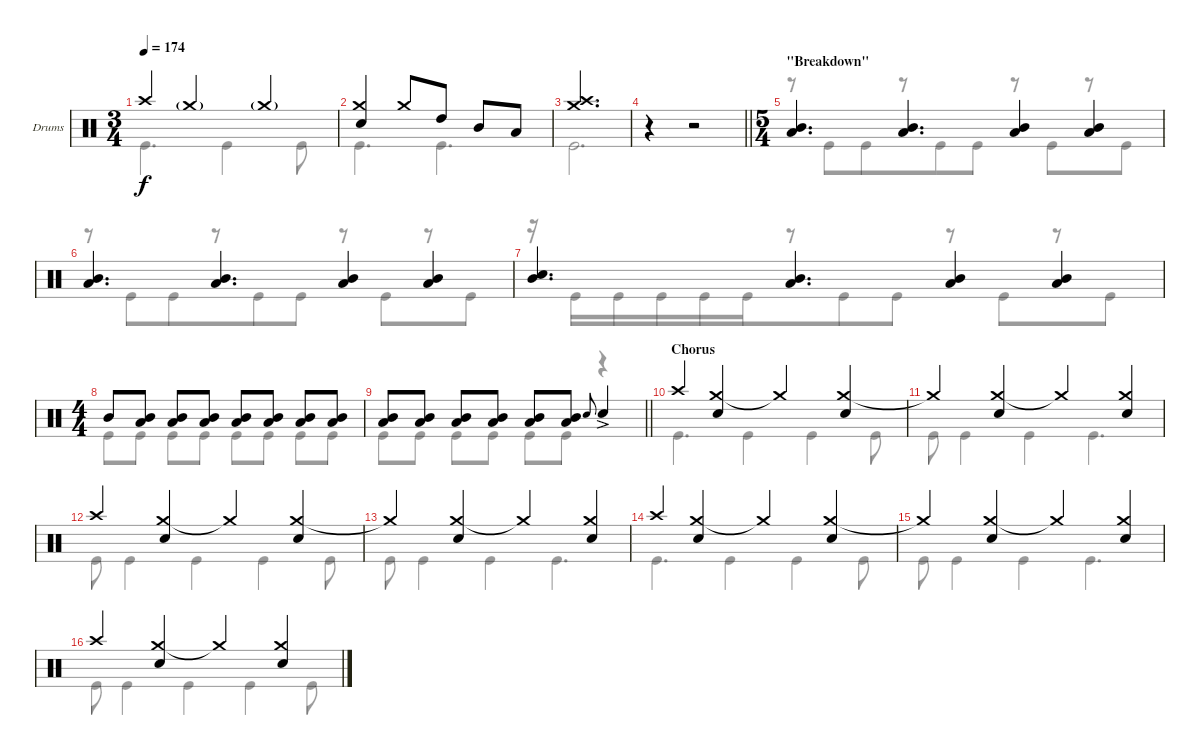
\bracketExtendMode groupsimilarinstruments
\firstSystemTrackNameOrientation horizontal
\otherSystemsTrackNameOrientation horizontal
\track ("Drumkit" "Drums") {instrument percussion}
\staff {score}
\articulation defaults
\voice
\ts (3 4)
\tempo 174
\clef neutral
\ks c "Crash high (hit)".4{dy f} "Crash medium (hit)"{g}.4 "Crash medium (hit)"{g}.4
|
("Crash medium (hit)" "Snare (hit) 2").4 "Crash medium (hit)".8 "High Tom (hit)".8 "Mid Tom (hit)".8 "Low Tom (hit)".8 |
("Crash high (hit)" "Crash medium (hit)").2{d} |
\barLineRight lightlight
r.4 r.2 |
\ts (5 4)
\beaming (8 6 4)
\section ("" "\"Breakdown\"")
("Mid Tom (hit)" "Low Tom (hit)").4{d} ("Mid Tom (hit)" "Low Tom (hit)").4{d} ("Mid Tom (hit)" "Low Tom (hit)").4 ("Mid Tom (hit)" "Low Tom (hit)").4 |
("Mid Tom (hit)" "Low Tom (hit)").4{d} ("Mid Tom (hit)" "Low Tom (hit)").4{d} ("Mid Tom (hit)" "Low Tom (hit)").4 ("Mid Tom (hit)" "Low Tom (hit)").4 |
("Mid Tom (hit)" "Snare (hit) 2").4{d} ("Mid Tom (hit)" "Low Tom (hit)").4{d} ("Mid Tom (hit)" "Low Tom (hit)").4 ("Mid Tom (hit)" "Low Tom (hit)").4 |
\ts (4 4)
\beaming (8 2 2 2 2)
"Mid Tom (hit)".8 ("Mid Tom (hit)" "Low Tom (hit)").8 ("Mid Tom (hit)" "Low Tom (hit)").8 ("Mid Tom (hit)" "Low Tom (hit)").8 ("Mid Tom (hit)" "Low Tom (hit)").8 ("Mid Tom (hit)" "Low Tom (hit)").8 ("Mid Tom (hit)" "Low Tom (hit)").8 ("Mid Tom (hit)" "Low Tom (hit)").8 |
\barLineRight lightlight
("Mid Tom (hit)" "Low Tom (hit)").8 ("Mid Tom (hit)" "Low Tom (hit)").8 ("Mid Tom (hit)" "Low Tom (hit)").8 ("Mid Tom (hit)" "Low Tom (hit)").8 ("Mid Tom (hit)" "Low Tom (hit)").8 ("Mid Tom (hit)" "Low Tom (hit)").8 "Snare (hit) 2".8{gr onbeat} "Snare (hit) 2"{ac}.4 |
\section ("" "Chorus")
"Crash high (hit)".4 ("Crash medium (hit)" "Snare (hit) 2").4 "Crash medium (hit)"{t}.4 ("Crash medium (hit)" "Snare (hit) 2").4 |
"Crash medium (hit)"{t}.4 ("Crash medium (hit)" "Snare (hit) 2").4 "Crash medium (hit)"{t}.4 ("Crash medium (hit)" "Snare (hit) 2").4 |
"Crash high (hit)".4 ("Crash medium (hit)" "Snare (hit) 2").4 "Crash medium (hit)"{t}.4 ("Crash medium (hit)" "Snare (hit) 2").4 |
"Crash medium (hit)"{t}.4 ("Crash medium (hit)" "Snare (hit) 2").4 "Crash medium (hit)"{t}.4 ("Crash medium (hit)" "Snare (hit) 2").4 |
"Crash high (hit)".4 ("Crash medium (hit)" "Snare (hit) 2").4 "Crash medium (hit)"{t}.4 ("Crash medium (hit)" "Snare (hit) 2").4 |
"Crash medium (hit)"{t}.4 ("Crash medium (hit)" "Snare (hit) 2").4 "Crash medium (hit)"{t}.4 ("Crash medium (hit)" "Snare (hit) 2").4 |
"Crash high (hit)".4 ("Crash medium (hit)" "Snare (hit) 2").4 "Crash medium (hit)"{t}.4 ("Crash medium (hit)" "Snare (hit) 2").4
\voice
\clef neutral
\ottava regular
\simile none
\ks c "Kick (hit)".4{d dy f} "Kick (hit)".4 "Kick (hit)".8
|
"Kick (hit)".4{d} "Kick (hit)".4{d} |
"Kick (hit)".2{d} |
\barLineRight lightlight
|
r.8 "Kick (hit)".8 "Kick (hit)".8 r.8 "Kick (hit)".8 "Kick (hit)".8 r.8 "Kick (hit)".8 r.8 "Kick (hit)".8 |
r.8 "Kick (hit)".8 "Kick (hit)".8 r.8 "Kick (hit)".8 "Kick (hit)".8 r.8 "Kick (hit)".8 r.8 "Kick (hit)".8 |
r.16 "Kick (hit)".16 "Kick (hit)".16 "Kick (hit)".16 "Kick (hit)".16 "Kick (hit)".16 r.8 "Kick (hit)".8 "Kick (hit)".8 r.8 "Kick (hit)".8 r.8 "Kick (hit)".8 |
"Kick (hit)".8 "Kick (hit)".8 "Kick (hit)".8 "Kick (hit)".8 "Kick (hit)".8 "Kick (hit)".8 "Kick (hit)".8 "Kick (hit)".8 |
\barLineRight lightlight "Kick (hit)".8 "Kick (hit)".8 "Kick (hit)".8 "Kick (hit)".8 "Kick (hit)".8 "Kick (hit)".8
r.4 |
"Kick (hit)".4{d} "Kick (hit)".4 "Kick (hit)".4 "Kick (hit)".8 |
"Kick (hit)".8 "Kick (hit)".4 "Kick (hit)".4 "Kick (hit)".4{d} |
"Kick (hit)".8 "Kick (hit)".4 "Kick (hit)".4 "Kick (hit)".4 "Kick (hit)".8 |
"Kick (hit)".8 "Kick (hit)".4 "Kick (hit)".4 "Kick (hit)".4{d} |
"Kick (hit)".4{d} "Kick (hit)".4 "Kick (hit)".4 "Kick (hit)".8 |
"Kick (hit)".8 "Kick (hit)".4 "Kick (hit)".4 "Kick (hit)".4{d} |
"Kick (hit)".8 "Kick (hit)".4 "Kick (hit)".4 "Kick (hit)".4 "Kick (hit)".8
